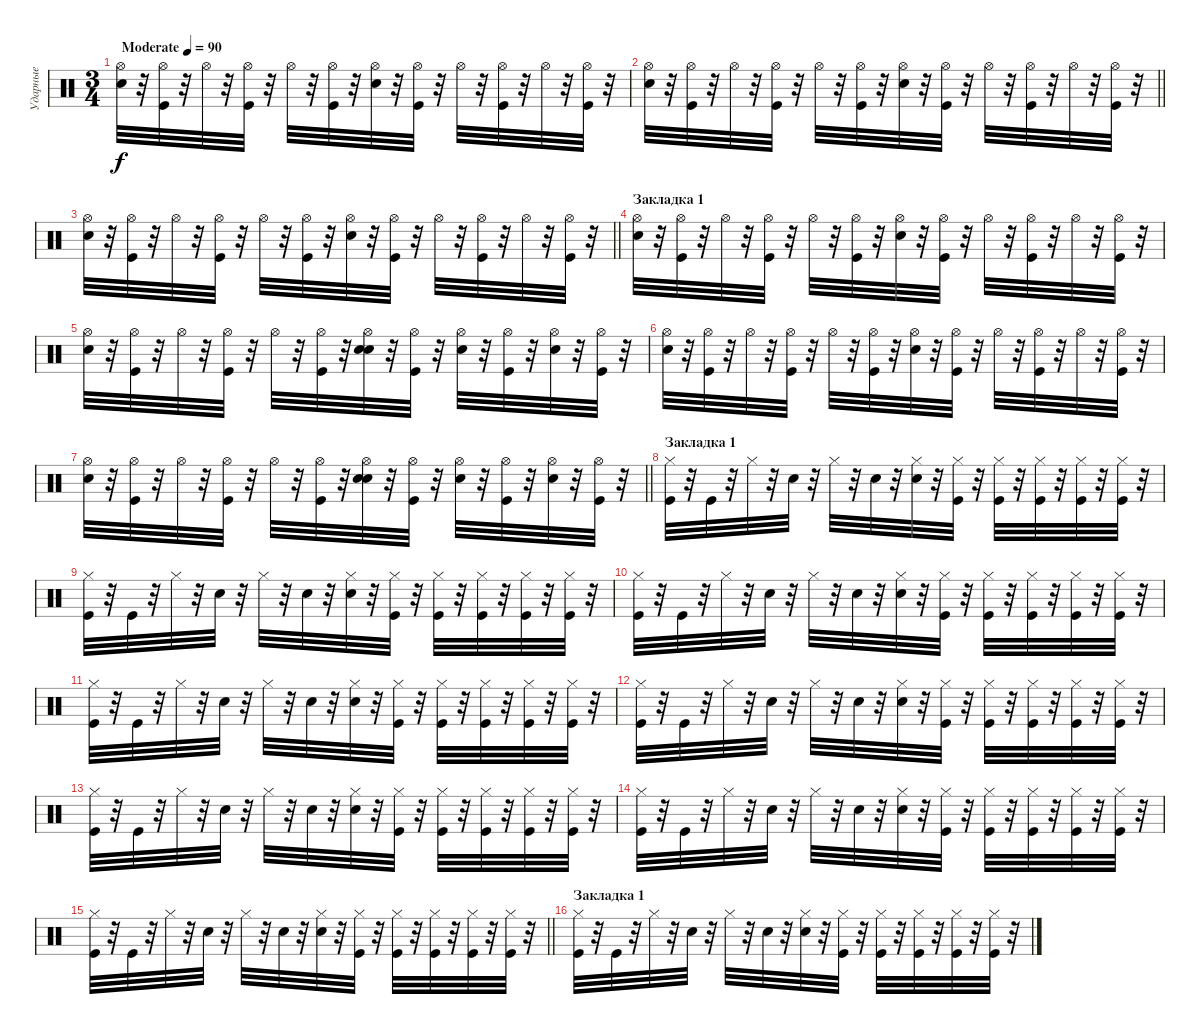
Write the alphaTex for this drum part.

\track ("Ударные" "Ударные") {instrument percussion}
\staff {score}
\articulation defaults
\ts (3 4)
\tempo (90 "Moderate")
\clef neutral
\ks c
("Hi-Hat (open)" "Electric Snare (hit)").32{dy f} r.32 ("Hi-Hat (open)" "Kick (hit)").32 r.32 "Hi-Hat (open)".32 r.32 ("Hi-Hat (open)" "Kick (hit)").32 r.32 "Hi-Hat (open)".32 r.32 ("Hi-Hat (open)" "Kick (hit)").32 r.32 ("Hi-Hat (open)" "Electric Snare (hit)").32 r.32 ("Hi-Hat (open)" "Kick (hit)").32 r.32 "Hi-Hat (open)".32 r.32 ("Hi-Hat (open)" "Kick (hit)").32 r.32 "Hi-Hat (open)".32 r.32 ("Hi-Hat (open)" "Kick (hit)").32 r.32 |
\barLineRight lightlight
("Hi-Hat (open)" "Electric Snare (hit)").32 r.32 ("Hi-Hat (open)" "Kick (hit)").32 r.32 "Hi-Hat (open)".32 r.32 ("Hi-Hat (open)" "Kick (hit)").32 r.32 "Hi-Hat (open)".32 r.32 ("Hi-Hat (open)" "Kick (hit)").32 r.32 ("Hi-Hat (open)" "Electric Snare (hit)").32 r.32 ("Hi-Hat (open)" "Kick (hit)").32 r.32 "Hi-Hat (open)".32 r.32 ("Hi-Hat (open)" "Kick (hit)").32 r.32 "Hi-Hat (open)".32 r.32 ("Hi-Hat (open)" "Kick (hit)").32 r.32 |
\barLineRight lightlight
("Hi-Hat (open)" "Electric Snare (hit)").32 r.32 ("Hi-Hat (open)" "Kick (hit)").32 r.32 "Hi-Hat (open)".32 r.32 ("Hi-Hat (open)" "Kick (hit)").32 r.32 "Hi-Hat (open)".32 r.32 ("Hi-Hat (open)" "Kick (hit)").32 r.32 ("Hi-Hat (open)" "Electric Snare (hit)").32 r.32 ("Hi-Hat (open)" "Kick (hit)").32 r.32 "Hi-Hat (open)".32 r.32 ("Hi-Hat (open)" "Kick (hit)").32 r.32 "Hi-Hat (open)".32 r.32 ("Hi-Hat (open)" "Kick (hit)").32 r.32 |
\section ("" "Закладка 1")
("Hi-Hat (open)" "Electric Snare (hit)").32 r.32 ("Hi-Hat (open)" "Kick (hit)").32 r.32 "Hi-Hat (open)".32 r.32 ("Hi-Hat (open)" "Kick (hit)").32 r.32 "Hi-Hat (open)".32 r.32 ("Hi-Hat (open)" "Kick (hit)").32 r.32 ("Hi-Hat (open)" "Electric Snare (hit)").32 r.32 ("Hi-Hat (open)" "Kick (hit)").32 r.32 "Hi-Hat (open)".32 r.32 ("Hi-Hat (open)" "Kick (hit)").32 r.32 "Hi-Hat (open)".32 r.32 ("Hi-Hat (open)" "Kick (hit)").32 r.32 |
("Hi-Hat (open)" "Electric Snare (hit)").32 r.32 ("Hi-Hat (open)" "Kick (hit)").32 r.32 "Hi-Hat (open)".32 r.32 ("Hi-Hat (open)" "Kick (hit)").32 r.32 "Hi-Hat (open)".32 r.32 ("Hi-Hat (open)" "Kick (hit)").32 r.32 ("Hi-Hat (open)" "Electric Snare (hit)" "Electric Snare (hit)").32 r.32 ("Hi-Hat (open)" "Kick (hit)").32 r.32 ("Hi-Hat (open)" "Electric Snare (hit)").32 r.32 ("Hi-Hat (open)" "Kick (hit)").32 r.32 ("Hi-Hat (open)" "Electric Snare (hit)").32 r.32 ("Hi-Hat (open)" "Kick (hit)").32 r.32 |
("Hi-Hat (open)" "Electric Snare (hit)").32 r.32 ("Hi-Hat (open)" "Kick (hit)").32 r.32 "Hi-Hat (open)".32 r.32 ("Hi-Hat (open)" "Kick (hit)").32 r.32 "Hi-Hat (open)".32 r.32 ("Hi-Hat (open)" "Kick (hit)").32 r.32 ("Hi-Hat (open)" "Electric Snare (hit)").32 r.32 ("Hi-Hat (open)" "Kick (hit)").32 r.32 "Hi-Hat (open)".32 r.32 ("Hi-Hat (open)" "Kick (hit)").32 r.32 "Hi-Hat (open)".32 r.32 ("Hi-Hat (open)" "Kick (hit)").32 r.32 |
\barLineRight lightlight
("Hi-Hat (open)" "Electric Snare (hit)").32 r.32 ("Hi-Hat (open)" "Kick (hit)").32 r.32 "Hi-Hat (open)".32 r.32 ("Hi-Hat (open)" "Kick (hit)").32 r.32 "Hi-Hat (open)".32 r.32 ("Hi-Hat (open)" "Kick (hit)").32 r.32 ("Hi-Hat (open)" "Electric Snare (hit)" "Electric Snare (hit)").32 r.32 ("Hi-Hat (open)" "Kick (hit)").32 r.32 ("Hi-Hat (open)" "Electric Snare (hit)").32 r.32 ("Hi-Hat (open)" "Kick (hit)").32 r.32 ("Hi-Hat (open)" "Electric Snare (hit)").32 r.32 ("Hi-Hat (open)" "Kick (hit)").32 r.32 |
\section ("" "Закладка 1")
("Hi-Hat (closed)" "Kick (hit)").32 r.32 "Kick (hit)".32 r.32 "Hi-Hat (closed)".32 r.32 "Snare (hit)".32 r.32 "Hi-Hat (closed)".32 r.32 "Snare (hit)".32 r.32 ("Hi-Hat (closed)" "Electric Snare (hit)").32 r.32 ("Hi-Hat (closed)" "Kick (hit)").32 r.32 ("Hi-Hat (closed)" "Kick (hit)").32 r.32 ("Hi-Hat (closed)" "Kick (hit)").32 r.32 ("Hi-Hat (closed)" "Kick (hit)").32 r.32 ("Hi-Hat (closed)" "Kick (hit)").32 r.32 |
("Hi-Hat (closed)" "Kick (hit)").32 r.32 "Kick (hit)".32 r.32 "Hi-Hat (closed)".32 r.32 "Snare (hit)".32 r.32 "Hi-Hat (closed)".32 r.32 "Snare (hit)".32 r.32 ("Hi-Hat (closed)" "Electric Snare (hit)").32 r.32 ("Hi-Hat (closed)" "Kick (hit)").32 r.32 ("Hi-Hat (closed)" "Kick (hit)").32 r.32 ("Hi-Hat (closed)" "Kick (hit)").32 r.32 ("Hi-Hat (closed)" "Kick (hit)").32 r.32 ("Hi-Hat (closed)" "Kick (hit)").32 r.32 |
("Hi-Hat (closed)" "Kick (hit)").32 r.32 "Kick (hit)".32 r.32 "Hi-Hat (closed)".32 r.32 "Snare (hit)".32 r.32 "Hi-Hat (closed)".32 r.32 "Snare (hit)".32 r.32 ("Hi-Hat (closed)" "Electric Snare (hit)").32 r.32 ("Hi-Hat (closed)" "Kick (hit)").32 r.32 ("Hi-Hat (closed)" "Kick (hit)").32 r.32 ("Hi-Hat (closed)" "Kick (hit)").32 r.32 ("Hi-Hat (closed)" "Kick (hit)").32 r.32 ("Hi-Hat (closed)" "Kick (hit)").32 r.32 |
("Hi-Hat (closed)" "Kick (hit)").32 r.32 "Kick (hit)".32 r.32 "Hi-Hat (closed)".32 r.32 "Snare (hit)".32 r.32 "Hi-Hat (closed)".32 r.32 "Snare (hit)".32 r.32 ("Hi-Hat (closed)" "Electric Snare (hit)").32 r.32 ("Hi-Hat (closed)" "Kick (hit)").32 r.32 ("Hi-Hat (closed)" "Kick (hit)").32 r.32 ("Hi-Hat (closed)" "Kick (hit)").32 r.32 ("Hi-Hat (closed)" "Kick (hit)").32 r.32 ("Hi-Hat (closed)" "Kick (hit)").32 r.32 |
("Hi-Hat (closed)" "Kick (hit)").32 r.32 "Kick (hit)".32 r.32 "Hi-Hat (closed)".32 r.32 "Snare (hit)".32 r.32 "Hi-Hat (closed)".32 r.32 "Snare (hit)".32 r.32 ("Hi-Hat (closed)" "Electric Snare (hit)").32 r.32 ("Hi-Hat (closed)" "Kick (hit)").32 r.32 ("Hi-Hat (closed)" "Kick (hit)").32 r.32 ("Hi-Hat (closed)" "Kick (hit)").32 r.32 ("Hi-Hat (closed)" "Kick (hit)").32 r.32 ("Hi-Hat (closed)" "Kick (hit)").32 r.32 |
("Hi-Hat (closed)" "Kick (hit)").32 r.32 "Kick (hit)".32 r.32 "Hi-Hat (closed)".32 r.32 "Snare (hit)".32 r.32 "Hi-Hat (closed)".32 r.32 "Snare (hit)".32 r.32 ("Hi-Hat (closed)" "Electric Snare (hit)").32 r.32 ("Hi-Hat (closed)" "Kick (hit)").32 r.32 ("Hi-Hat (closed)" "Kick (hit)").32 r.32 ("Hi-Hat (closed)" "Kick (hit)").32 r.32 ("Hi-Hat (closed)" "Kick (hit)").32 r.32 ("Hi-Hat (closed)" "Kick (hit)").32 r.32 |
("Hi-Hat (closed)" "Kick (hit)").32 r.32 "Kick (hit)".32 r.32 "Hi-Hat (closed)".32 r.32 "Snare (hit)".32 r.32 "Hi-Hat (closed)".32 r.32 "Snare (hit)".32 r.32 ("Hi-Hat (closed)" "Electric Snare (hit)").32 r.32 ("Hi-Hat (closed)" "Kick (hit)").32 r.32 ("Hi-Hat (closed)" "Kick (hit)").32 r.32 ("Hi-Hat (closed)" "Kick (hit)").32 r.32 ("Hi-Hat (closed)" "Kick (hit)").32 r.32 ("Hi-Hat (closed)" "Kick (hit)").32 r.32 |
\barLineRight lightlight
("Hi-Hat (closed)" "Kick (hit)").32 r.32 "Kick (hit)".32 r.32 "Hi-Hat (closed)".32 r.32 "Snare (hit)".32 r.32 "Hi-Hat (closed)".32 r.32 "Snare (hit)".32 r.32 ("Hi-Hat (closed)" "Electric Snare (hit)").32 r.32 ("Hi-Hat (closed)" "Kick (hit)").32 r.32 ("Hi-Hat (closed)" "Kick (hit)").32 r.32 ("Hi-Hat (closed)" "Kick (hit)").32 r.32 ("Hi-Hat (closed)" "Kick (hit)").32 r.32 ("Hi-Hat (closed)" "Kick (hit)").32 r.32 |
\section ("" "Закладка 1")
("Hi-Hat (closed)" "Kick (hit)").32 r.32 "Kick (hit)".32 r.32 "Hi-Hat (closed)".32 r.32 "Snare (hit)".32 r.32 "Hi-Hat (closed)".32 r.32 "Snare (hit)".32 r.32 ("Hi-Hat (closed)" "Electric Snare (hit)").32 r.32 ("Hi-Hat (closed)" "Kick (hit)").32 r.32 ("Hi-Hat (closed)" "Kick (hit)").32 r.32 ("Hi-Hat (closed)" "Kick (hit)").32 r.32 ("Hi-Hat (closed)" "Kick (hit)").32 r.32 ("Hi-Hat (closed)" "Kick (hit)").32 r.32
